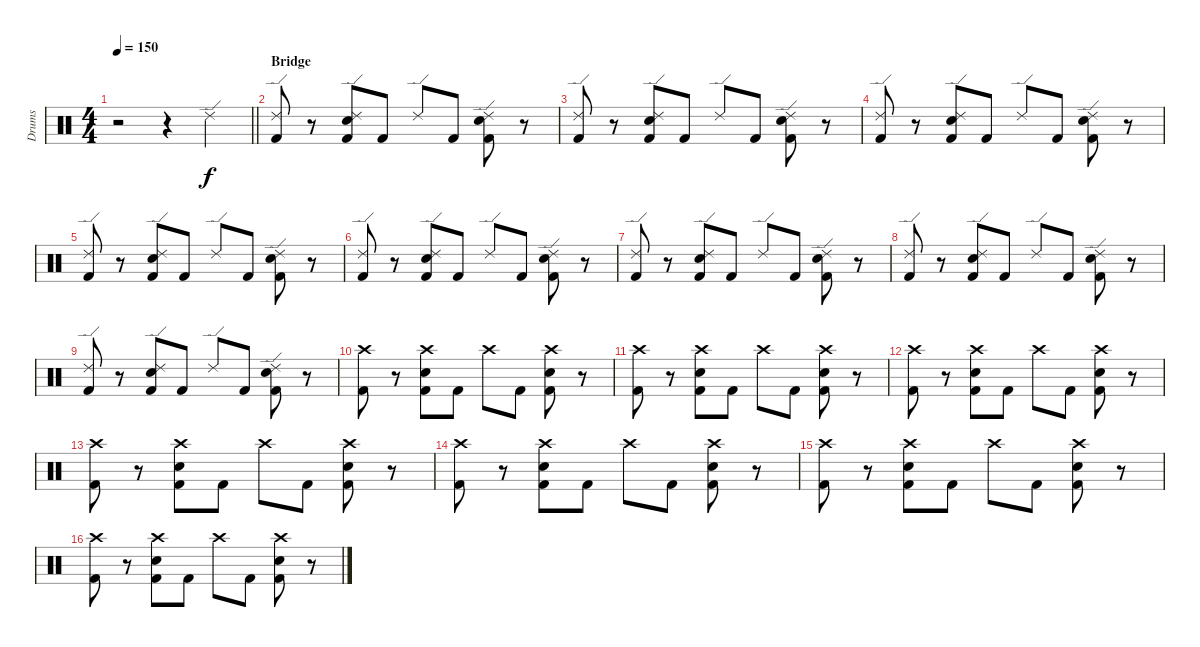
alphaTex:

\track ("Drums" "Drums") {instrument percussion}
\staff {score}
\articulation defaults
\ts (4 4)
\tempo 150
\clef neutral
\barLineRight lightlight
\ks c
r.2{dy f} r.4 "Ride (edge) 2".4 |
\section ("" "Bridge")
("Ride (edge) 2" "Kick (hit) 2").8 r.8 ("Ride (edge) 2" "Electric Snare (hit)" "Kick (hit) 2").8 "Kick (hit) 2".8 "Ride (edge) 2".8 "Kick (hit) 2".8 ("Ride (edge) 2" "Electric Snare (hit)" "Kick (hit) 2").8 r.8 |
("Ride (edge) 2" "Kick (hit) 2").8 r.8 ("Ride (edge) 2" "Electric Snare (hit)" "Kick (hit) 2").8 "Kick (hit) 2".8 "Ride (edge) 2".8 "Kick (hit) 2".8 ("Ride (edge) 2" "Electric Snare (hit)" "Kick (hit) 2").8 r.8 |
("Ride (edge) 2" "Kick (hit) 2").8 r.8 ("Ride (edge) 2" "Electric Snare (hit)" "Kick (hit) 2").8 "Kick (hit) 2".8 "Ride (edge) 2".8 "Kick (hit) 2".8 ("Ride (edge) 2" "Electric Snare (hit)" "Kick (hit) 2").8 r.8 |
("Ride (edge) 2" "Kick (hit) 2").8 r.8 ("Ride (edge) 2" "Electric Snare (hit)" "Kick (hit) 2").8 "Kick (hit) 2".8 "Ride (edge) 2".8 "Kick (hit) 2".8 ("Ride (edge) 2" "Electric Snare (hit)" "Kick (hit) 2").8 r.8 |
("Ride (edge) 2" "Kick (hit) 2").8 r.8 ("Ride (edge) 2" "Electric Snare (hit)" "Kick (hit) 2").8 "Kick (hit) 2".8 "Ride (edge) 2".8 "Kick (hit) 2".8 ("Ride (edge) 2" "Electric Snare (hit)" "Kick (hit) 2").8 r.8 |
("Ride (edge) 2" "Kick (hit) 2").8 r.8 ("Ride (edge) 2" "Electric Snare (hit)" "Kick (hit) 2").8 "Kick (hit) 2".8 "Ride (edge) 2".8 "Kick (hit) 2".8 ("Ride (edge) 2" "Electric Snare (hit)" "Kick (hit) 2").8 r.8 |
("Ride (edge) 2" "Kick (hit) 2").8 r.8 ("Ride (edge) 2" "Electric Snare (hit)" "Kick (hit) 2").8 "Kick (hit) 2".8 "Ride (edge) 2".8 "Kick (hit) 2".8 ("Ride (edge) 2" "Electric Snare (hit)" "Kick (hit) 2").8 r.8 |
("Ride (edge) 2" "Kick (hit) 2").8 r.8 ("Ride (edge) 2" "Electric Snare (hit)" "Kick (hit) 2").8 "Kick (hit) 2".8 "Ride (edge) 2".8 "Kick (hit) 2".8 ("Ride (edge) 2" "Electric Snare (hit)" "Kick (hit) 2").8 r.8 |
("Crash high (hit)" "Kick (hit) 2").8 r.8 ("Crash high (hit)" "Electric Snare (hit)" "Kick (hit) 2").8 "Kick (hit) 2".8 "Crash high (hit)".8 "Kick (hit) 2".8 ("Crash high (hit)" "Electric Snare (hit)" "Kick (hit) 2").8 r.8 |
("Crash high (hit)" "Kick (hit) 2").8 r.8 ("Crash high (hit)" "Electric Snare (hit)" "Kick (hit) 2").8 "Kick (hit) 2".8 "Crash high (hit)".8 "Kick (hit) 2".8 ("Crash high (hit)" "Electric Snare (hit)" "Kick (hit) 2").8 r.8 |
("Crash high (hit)" "Kick (hit) 2").8 r.8 ("Crash high (hit)" "Electric Snare (hit)" "Kick (hit) 2").8 "Kick (hit) 2".8 "Crash high (hit)".8 "Kick (hit) 2".8 ("Crash high (hit)" "Electric Snare (hit)" "Kick (hit) 2").8 r.8 |
("Crash high (hit)" "Kick (hit) 2").8 r.8 ("Crash high (hit)" "Electric Snare (hit)" "Kick (hit) 2").8 "Kick (hit) 2".8 "Crash high (hit)".8 "Kick (hit) 2".8 ("Crash high (hit)" "Electric Snare (hit)" "Kick (hit) 2").8 r.8 |
("Crash high (hit)" "Kick (hit) 2").8 r.8 ("Crash high (hit)" "Electric Snare (hit)" "Kick (hit) 2").8 "Kick (hit) 2".8 "Crash high (hit)".8 "Kick (hit) 2".8 ("Crash high (hit)" "Electric Snare (hit)" "Kick (hit) 2").8 r.8 |
("Crash high (hit)" "Kick (hit) 2").8 r.8 ("Crash high (hit)" "Electric Snare (hit)" "Kick (hit) 2").8 "Kick (hit) 2".8 "Crash high (hit)".8 "Kick (hit) 2".8 ("Crash high (hit)" "Electric Snare (hit)" "Kick (hit) 2").8 r.8 |
("Crash high (hit)" "Kick (hit) 2").8 r.8 ("Crash high (hit)" "Electric Snare (hit)" "Kick (hit) 2").8 "Kick (hit) 2".8 "Crash high (hit)".8 "Kick (hit) 2".8 ("Crash high (hit)" "Electric Snare (hit)" "Kick (hit) 2").8 r.8
